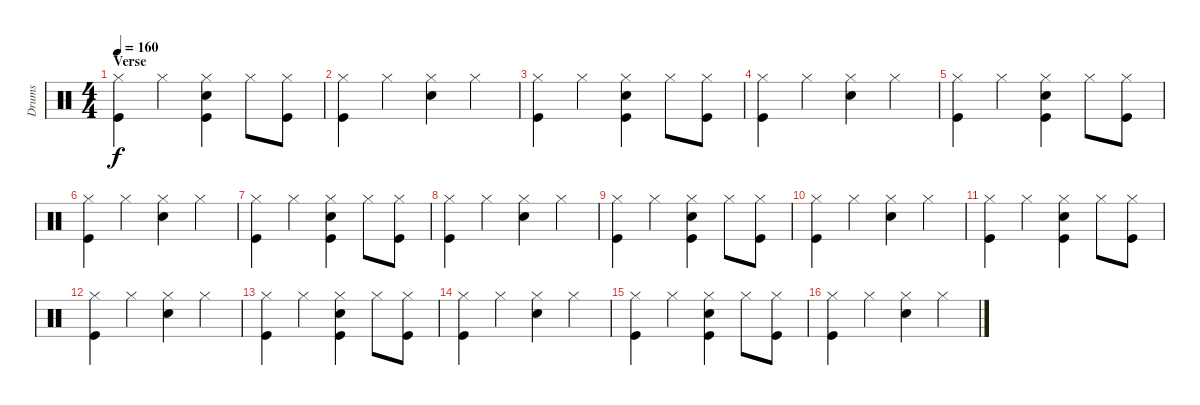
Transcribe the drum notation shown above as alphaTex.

\track ("Drums" "Drums") {instrument percussion}
\staff {score}
\articulation defaults
\ts (4 4)
\section ("" "Verse")
\tempo 160
\clef neutral
\ks c
("Hi-Hat (closed)" "Kick (hit)").4{dy f} "Hi-Hat (closed)".4 ("Hi-Hat (closed)" "Kick (hit)" "Snare (hit) 2").4 "Hi-Hat (closed)".8 ("Hi-Hat (closed)" "Kick (hit)").8 |
("Kick (hit)" "Hi-Hat (closed)").4 "Hi-Hat (closed)".4 ("Hi-Hat (closed)" "Snare (hit) 2").4 "Hi-Hat (closed)".4 |
("Hi-Hat (closed)" "Kick (hit)").4 "Hi-Hat (closed)".4 ("Hi-Hat (closed)" "Kick (hit)" "Snare (hit) 2").4 "Hi-Hat (closed)".8 ("Hi-Hat (closed)" "Kick (hit)").8 |
("Kick (hit)" "Hi-Hat (closed)").4 "Hi-Hat (closed)".4 ("Hi-Hat (closed)" "Snare (hit) 2").4 "Hi-Hat (closed)".4 |
("Hi-Hat (closed)" "Kick (hit)").4 "Hi-Hat (closed)".4 ("Hi-Hat (closed)" "Kick (hit)" "Snare (hit) 2").4 "Hi-Hat (closed)".8 ("Hi-Hat (closed)" "Kick (hit)").8 |
("Kick (hit)" "Hi-Hat (closed)").4 "Hi-Hat (closed)".4 ("Hi-Hat (closed)" "Snare (hit) 2").4 "Hi-Hat (closed)".4 |
("Hi-Hat (closed)" "Kick (hit)").4 "Hi-Hat (closed)".4 ("Hi-Hat (closed)" "Kick (hit)" "Snare (hit) 2").4 "Hi-Hat (closed)".8 ("Hi-Hat (closed)" "Kick (hit)").8 |
("Kick (hit)" "Hi-Hat (closed)").4 "Hi-Hat (closed)".4 ("Hi-Hat (closed)" "Snare (hit) 2").4 "Hi-Hat (closed)".4 |
("Hi-Hat (closed)" "Kick (hit)").4 "Hi-Hat (closed)".4 ("Hi-Hat (closed)" "Kick (hit)" "Snare (hit) 2").4 "Hi-Hat (closed)".8 ("Hi-Hat (closed)" "Kick (hit)").8 |
("Kick (hit)" "Hi-Hat (closed)").4 "Hi-Hat (closed)".4 ("Hi-Hat (closed)" "Snare (hit) 2").4 "Hi-Hat (closed)".4 |
("Hi-Hat (closed)" "Kick (hit)").4 "Hi-Hat (closed)".4 ("Hi-Hat (closed)" "Kick (hit)" "Snare (hit) 2").4 "Hi-Hat (closed)".8 ("Hi-Hat (closed)" "Kick (hit)").8 |
("Kick (hit)" "Hi-Hat (closed)").4 "Hi-Hat (closed)".4 ("Hi-Hat (closed)" "Snare (hit) 2").4 "Hi-Hat (closed)".4 |
("Hi-Hat (closed)" "Kick (hit)").4 "Hi-Hat (closed)".4 ("Hi-Hat (closed)" "Kick (hit)" "Snare (hit) 2").4 "Hi-Hat (closed)".8 ("Hi-Hat (closed)" "Kick (hit)").8 |
("Kick (hit)" "Hi-Hat (closed)").4 "Hi-Hat (closed)".4 ("Hi-Hat (closed)" "Snare (hit) 2").4 "Hi-Hat (closed)".4 |
("Hi-Hat (closed)" "Kick (hit)").4 "Hi-Hat (closed)".4 ("Hi-Hat (closed)" "Kick (hit)" "Snare (hit) 2").4 "Hi-Hat (closed)".8 ("Hi-Hat (closed)" "Kick (hit)").8 |
("Kick (hit)" "Hi-Hat (closed)").4 "Hi-Hat (closed)".4 ("Hi-Hat (closed)" "Snare (hit) 2").4 "Hi-Hat (closed)".4
